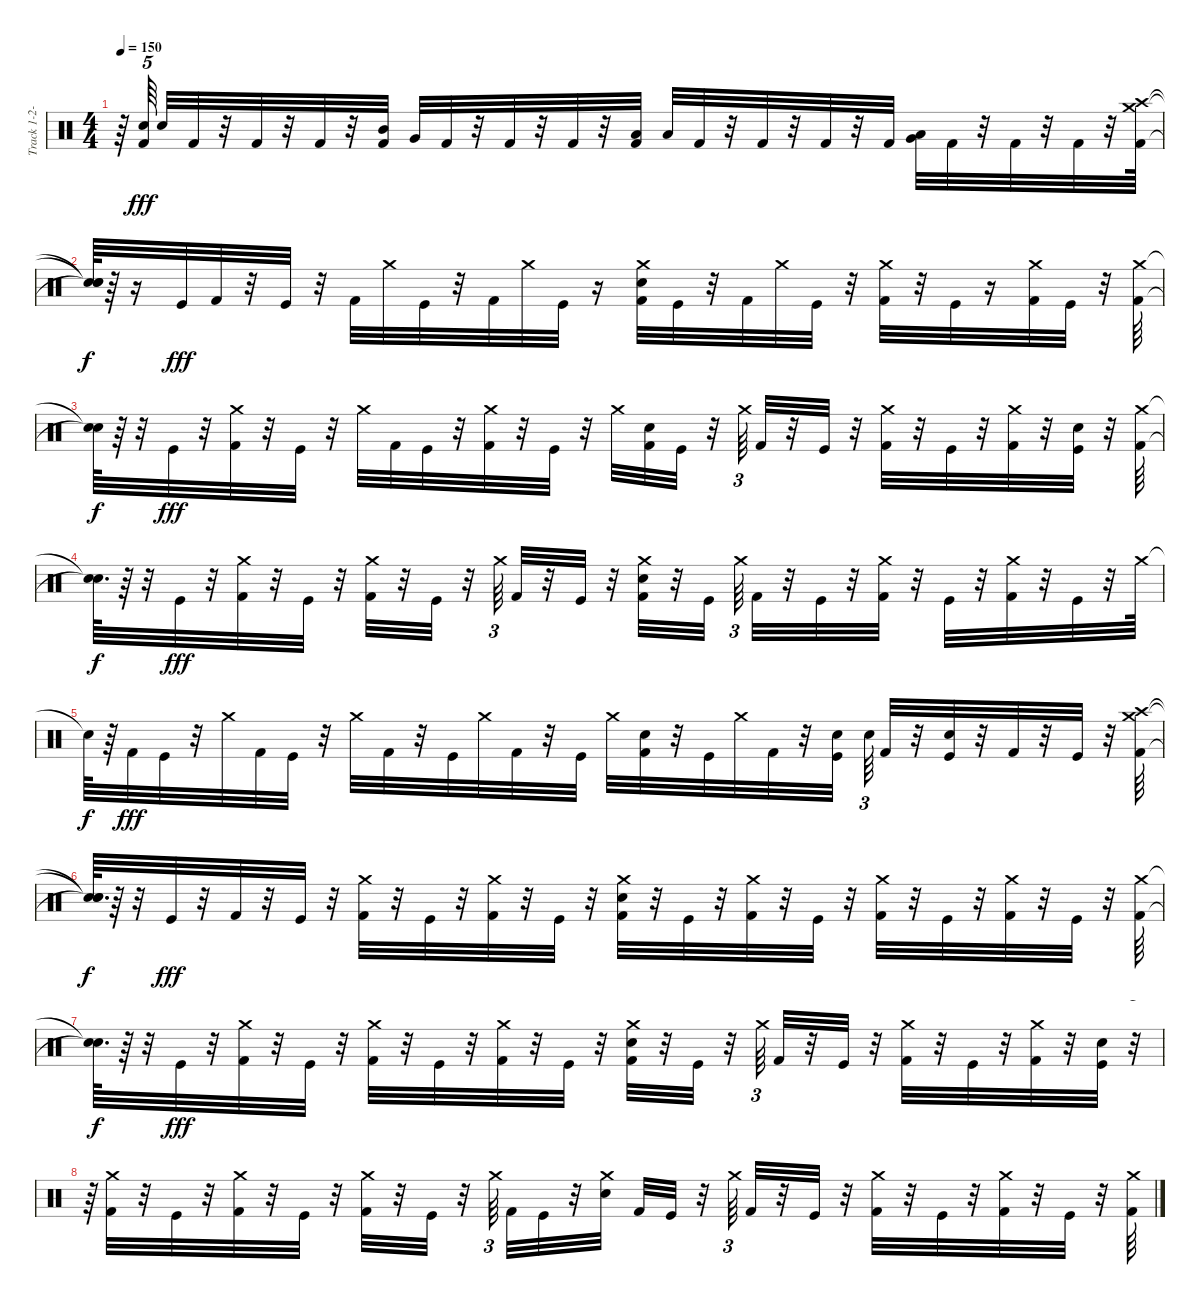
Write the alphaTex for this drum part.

\track ("Track 1-2-3-4-5-6-7-8-9-10-11-12-13-14-1" "Track 1-2-") {instrument percussion}
\staff {score}
\articulation defaults
\ts (4 4)
\tempo 150
\clef neutral
\ks c
r.64{dy fff} ("Kick (hit) 2" "Snare (hit) 2").64{tu (5 4) beam splitsecondary} "Snare (hit) 2".32 "Kick (hit) 2".32 r.32 "Kick (hit) 2".32 r.32 "Kick (hit) 2".32 r.32 ("Mid Tom (hit)" "Kick (hit) 2").32 "Very Low Tom (hit)".32 "Kick (hit) 2".32 r.32 "Kick (hit) 2".32 r.32 "Kick (hit) 2".32 r.32 ("Low Tom (hit)" "Kick (hit) 2").32 "Low Tom (hit)".32 "Kick (hit) 2".32 r.32 "Kick (hit) 2".32 r.32 "Kick (hit) 2".32 r.32 "Kick (hit) 2".32 ("Very Low Tom (hit)" "Low Floor Tom (hit)").32 "Kick (hit) 2".32 r.32 "Kick (hit) 2".32 r.32 "Kick (hit) 2".32 r.32 ("Crash high (hit)" "Kick (hit) 2" "Crash medium (hit)").64 |
("Snare (hit)"{t} "Snare (hit)"{t} "Snare (hit)"{t}).64{dy f} r.64 r.16 "Kick (hit)".32{dy fff} "Kick (hit) 2".32 r.32 "Kick (hit)".32 r.32 "Kick (hit) 2".32 "Crash medium (hit)".32 "Kick (hit)".32 r.32 "Kick (hit) 2".32 "Crash medium (hit)".32 "Kick (hit)".32 r.16 ("Kick (hit) 2" "Snare (hit) 2" "Crash medium (hit)").32 "Kick (hit)".32 r.32 "Kick (hit) 2".32 "Crash medium (hit)".32 "Kick (hit)".32 r.32 ("Kick (hit) 2" "Crash medium (hit)").32 r.32 "Kick (hit)".32 r.16 ("Kick (hit) 2" "Crash medium (hit)").32 "Kick (hit)".32 r.32 ("Crash medium (hit)" "Kick (hit) 2").64 |
("Snare (hit)"{t} "Snare (hit)"{t}).64{dy f} r.64 r.32 "Kick (hit)".32{dy fff} r.32 ("Crash medium (hit)" "Kick (hit) 2").32 r.32 "Kick (hit)".32 r.32 "Crash medium (hit)".32 "Kick (hit) 2".32 "Kick (hit)".32 r.32 ("Crash medium (hit)" "Kick (hit) 2").32 r.32 "Kick (hit)".32 r.32 "Crash medium (hit)".32 ("Kick (hit) 2" "Snare (hit) 2").32 "Kick (hit)".32 r.32 "Crash medium (hit)".64{tu (3 2)} "Kick (hit) 2".32 r.32 "Kick (hit)".32 r.32 ("Crash medium (hit)" "Kick (hit) 2").32 r.32 "Kick (hit)".32 r.32 ("Crash medium (hit)" "Kick (hit) 2").32 r.32 ("Kick (hit)" "Snare (hit)").32 r.32 ("Crash medium (hit)" "Kick (hit) 2").64 |
("Snare (hit)"{t} "Snare (hit)"{t}).64{d dy f} r.64 r.32 "Kick (hit)".32{dy fff} r.32 ("Crash medium (hit)" "Kick (hit) 2").32 r.32 "Kick (hit)".32 r.32 ("Crash medium (hit)" "Kick (hit) 2").32 r.32 "Kick (hit)".32 r.32 "Crash medium (hit)".64{tu (3 2)} "Kick (hit) 2".32 r.32 "Kick (hit)".32 r.32 ("Crash medium (hit)" "Snare (hit) 2" "Kick (hit) 2").32 r.32 "Kick (hit)".32{beam splitsecondary} "Crash medium (hit)".64{tu (3 2)} "Kick (hit) 2".32 r.32 "Kick (hit)".32 r.32 ("Crash medium (hit)" "Kick (hit) 2").32 r.32 "Kick (hit)".32 r.32 ("Crash medium (hit)" "Kick (hit) 2").32 r.32 "Kick (hit)".32 r.32 "Crash medium (hit)".64 |
"Snare (hit)"{t}.64{dy f} r.64 "Kick (hit) 2".32{dy fff} "Kick (hit)".32 r.32 "Crash medium (hit)".32 "Kick (hit) 2".32 "Kick (hit)".32 r.32 "Crash medium (hit)".32 "Kick (hit) 2".32 r.32 "Kick (hit)".32 "Crash medium (hit)".32 "Kick (hit) 2".32 r.32 "Kick (hit)".32 "Crash medium (hit)".32 ("Snare (hit) 2" "Kick (hit) 2").32 r.32 "Kick (hit)".32 "Crash medium (hit)".32 "Kick (hit) 2".32 r.32 ("Kick (hit)" "Snare (hit) 2").32 "Snare (hit) 2".64{tu (3 2)} "Kick (hit) 2".32 r.32 ("Snare (hit) 2" "Kick (hit)").32 r.32 "Kick (hit) 2".32 r.32 "Kick (hit)".32 r.32 ("Crash high (hit)" "Kick (hit) 2" "Crash medium (hit)").64 |
("Snare (hit)"{t} "Snare (hit)"{t} "Snare (hit)"{t}).64{d dy f} r.64 r.32 "Kick (hit)".32{dy fff} r.32 "Kick (hit) 2".32 r.32 "Kick (hit)".32 r.32 ("Kick (hit) 2" "Crash medium (hit)").32 r.32 "Kick (hit)".32 r.32 ("Kick (hit) 2" "Crash medium (hit)").32 r.32 "Kick (hit)".32 r.32 ("Kick (hit) 2" "Snare (hit) 2" "Crash medium (hit)").32 r.32 "Kick (hit)".32 r.32 ("Kick (hit) 2" "Crash medium (hit)").32 r.32 "Kick (hit)".32 r.32 ("Kick (hit) 2" "Crash medium (hit)").32 r.32 "Kick (hit)".32 r.32 ("Kick (hit) 2" "Crash medium (hit)").32 r.32 "Kick (hit)".32 r.32 ("Crash medium (hit)" "Kick (hit) 2").64 |
("Snare (hit)"{t} "Snare (hit)"{t}).64{d dy f} r.64 r.32 "Kick (hit)".32{dy fff} r.32 ("Crash medium (hit)" "Kick (hit) 2").32 r.32 "Kick (hit)".32 r.32 ("Crash medium (hit)" "Kick (hit) 2").32 r.32 "Kick (hit)".32 r.32 ("Crash medium (hit)" "Kick (hit) 2").32 r.32 "Kick (hit)".32 r.32 ("Crash medium (hit)" "Kick (hit) 2" "Snare (hit) 2").32 r.32 "Kick (hit)".32 r.32 "Crash medium (hit)".64{tu (3 2)} "Kick (hit) 2".32 r.32 "Kick (hit)".32 r.32 ("Crash medium (hit)" "Kick (hit) 2").32 r.32 "Kick (hit)".32 r.32 ("Crash medium (hit)" "Kick (hit) 2").32 r.32 ("Kick (hit)" "Snare (hit)").32 r.32{tu (5 4)} |
r.64 ("Crash medium (hit)" "Kick (hit) 2").32 r.32 "Kick (hit)".32 r.32 ("Crash medium (hit)" "Kick (hit) 2").32 r.32 "Kick (hit)".32 r.32 ("Crash medium (hit)" "Kick (hit) 2").32 r.32 "Kick (hit)".32 r.32 "Crash medium (hit)".64{tu (3 2) beam splitsecondary} "Kick (hit) 2".32 "Kick (hit)".32 r.32 ("Crash medium (hit)" "Snare (hit) 2").32 "Kick (hit) 2".32 "Kick (hit)".32 r.32 "Crash medium (hit)".64{tu (3 2)} "Kick (hit) 2".32 r.32 "Kick (hit)".32 r.32 ("Crash medium (hit)" "Kick (hit) 2").32 r.32 "Kick (hit)".32 r.32 ("Crash medium (hit)" "Kick (hit) 2").32 r.32 "Kick (hit)".32 r.32 ("Crash medium (hit)" "Kick (hit) 2").64
